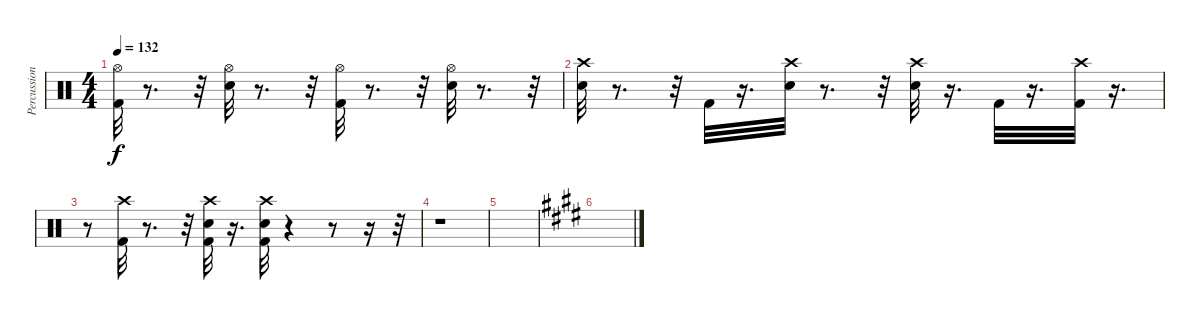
\track ("Percussion" "Percussion") {instrument percussion}
\staff {score}
\articulation defaults
\ts (4 4)
\tempo 132
\clef neutral
\ks c
("Kick (hit) 2" "Hi-Hat (open)").32{dy f} r.8{d} r.32 ("Snare (hit) 2" "Hi-Hat (open)").32 r.8{d} r.32 ("Kick (hit) 2" "Hi-Hat (open)").32 r.8{d} r.32 ("Hi-Hat (open)" "Snare (hit) 2").32 r.8{d} r.32 |
("Snare (hit) 2" "Crash high (hit)").32 r.8{d} r.32 "Kick (hit) 2".32 r.16{d} ("Snare (hit) 2" "Crash high (hit)").32 r.8{d} r.32 ("Snare (hit) 2" "Crash high (hit)").32 r.16{d} "Kick (hit) 2".32 r.16{d} ("Crash high (hit)" "Kick (hit) 2").32 r.16{d} |
r.8 ("Kick (hit) 2" "Crash high (hit)").32 r.8{d} r.32 ("Snare (hit) 2" "Crash high (hit)" "Kick (hit) 2").32 r.16{d} ("Kick (hit) 2" "Snare (hit) 2" "Crash high (hit)").32 r.4 r.8 r.16 r.32 |
r.1 |
|
\ks e
